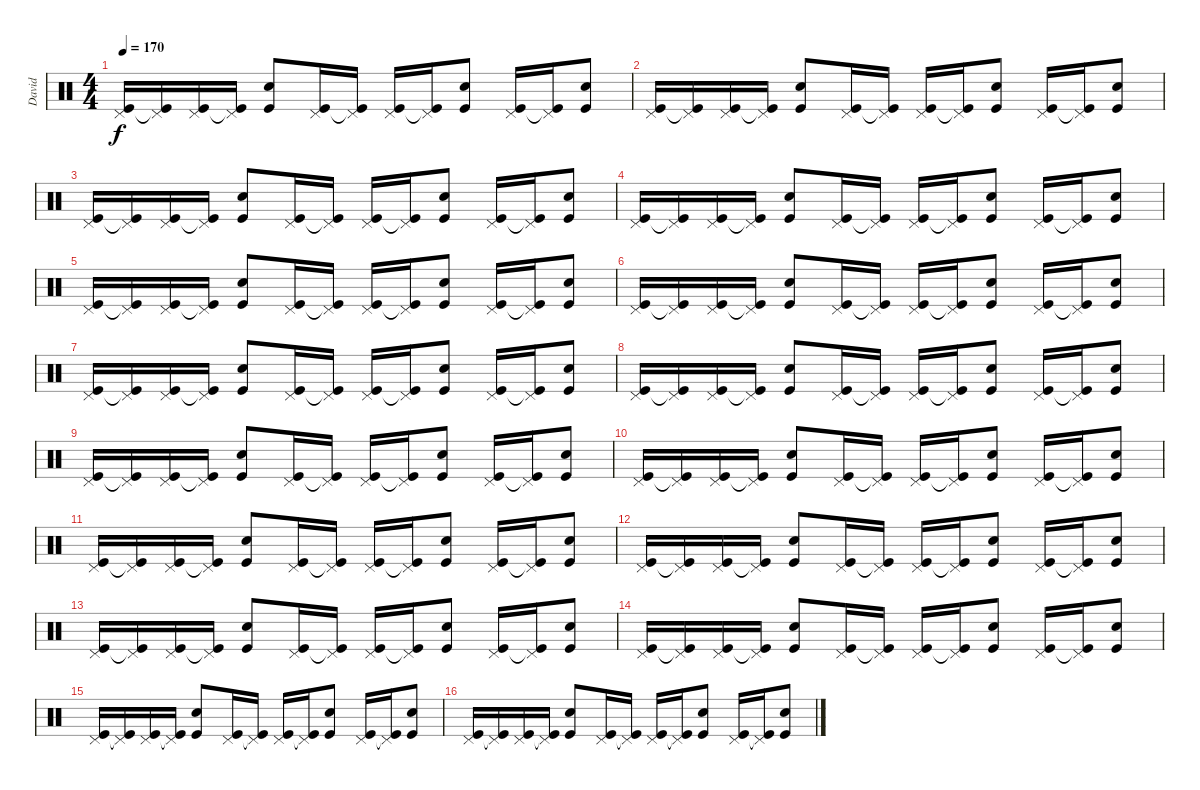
\track ("David" "David") {instrument percussion}
\staff {score}
\articulation defaults
\ts (4 4)
\tempo 170
\clef neutral
\ks c
("Pedal Hi-Hat (hit)" "Kick (hit)").16{dy f} ("Pedal Hi-Hat (hit)" "Kick (hit)"{t}).16 ("Pedal Hi-Hat (hit)" "Kick (hit)").16 ("Pedal Hi-Hat (hit)" "Kick (hit)"{t}).16 ("Snare (hit) 2" "Kick (hit)").8 ("Pedal Hi-Hat (hit)" "Kick (hit)").16 ("Pedal Hi-Hat (hit)" "Kick (hit)"{t}).16 ("Pedal Hi-Hat (hit)" "Kick (hit)").16 ("Pedal Hi-Hat (hit)" "Kick (hit)"{t}).16 ("Snare (hit) 2" "Kick (hit)").8 ("Pedal Hi-Hat (hit)" "Kick (hit)").16 ("Pedal Hi-Hat (hit)" "Kick (hit)"{t}).16 ("Snare (hit) 2" "Kick (hit)").8 |
("Pedal Hi-Hat (hit)" "Kick (hit)").16 ("Pedal Hi-Hat (hit)" "Kick (hit)"{t}).16 ("Pedal Hi-Hat (hit)" "Kick (hit)").16 ("Pedal Hi-Hat (hit)" "Kick (hit)"{t}).16 ("Snare (hit) 2" "Kick (hit)").8 ("Pedal Hi-Hat (hit)" "Kick (hit)").16 ("Pedal Hi-Hat (hit)" "Kick (hit)"{t}).16 ("Pedal Hi-Hat (hit)" "Kick (hit)").16 ("Pedal Hi-Hat (hit)" "Kick (hit)"{t}).16 ("Snare (hit) 2" "Kick (hit)").8 ("Pedal Hi-Hat (hit)" "Kick (hit)").16 ("Pedal Hi-Hat (hit)" "Kick (hit)"{t}).16 ("Snare (hit) 2" "Kick (hit)").8 |
("Pedal Hi-Hat (hit)" "Kick (hit)").16 ("Pedal Hi-Hat (hit)" "Kick (hit)"{t}).16 ("Pedal Hi-Hat (hit)" "Kick (hit)").16 ("Pedal Hi-Hat (hit)" "Kick (hit)"{t}).16 ("Snare (hit) 2" "Kick (hit)").8 ("Pedal Hi-Hat (hit)" "Kick (hit)").16 ("Pedal Hi-Hat (hit)" "Kick (hit)"{t}).16 ("Pedal Hi-Hat (hit)" "Kick (hit)").16 ("Pedal Hi-Hat (hit)" "Kick (hit)"{t}).16 ("Snare (hit) 2" "Kick (hit)").8 ("Pedal Hi-Hat (hit)" "Kick (hit)").16 ("Pedal Hi-Hat (hit)" "Kick (hit)"{t}).16 ("Snare (hit) 2" "Kick (hit)").8 |
("Pedal Hi-Hat (hit)" "Kick (hit)").16 ("Pedal Hi-Hat (hit)" "Kick (hit)"{t}).16 ("Pedal Hi-Hat (hit)" "Kick (hit)").16 ("Pedal Hi-Hat (hit)" "Kick (hit)"{t}).16 ("Snare (hit) 2" "Kick (hit)").8 ("Pedal Hi-Hat (hit)" "Kick (hit)").16 ("Pedal Hi-Hat (hit)" "Kick (hit)"{t}).16 ("Pedal Hi-Hat (hit)" "Kick (hit)").16 ("Pedal Hi-Hat (hit)" "Kick (hit)"{t}).16 ("Snare (hit) 2" "Kick (hit)").8 ("Pedal Hi-Hat (hit)" "Kick (hit)").16 ("Pedal Hi-Hat (hit)" "Kick (hit)"{t}).16 ("Snare (hit) 2" "Kick (hit)").8 |
("Pedal Hi-Hat (hit)" "Kick (hit)").16 ("Pedal Hi-Hat (hit)" "Kick (hit)"{t}).16 ("Pedal Hi-Hat (hit)" "Kick (hit)").16 ("Pedal Hi-Hat (hit)" "Kick (hit)"{t}).16 ("Snare (hit) 2" "Kick (hit)").8 ("Pedal Hi-Hat (hit)" "Kick (hit)").16 ("Pedal Hi-Hat (hit)" "Kick (hit)"{t}).16 ("Pedal Hi-Hat (hit)" "Kick (hit)").16 ("Pedal Hi-Hat (hit)" "Kick (hit)"{t}).16 ("Snare (hit) 2" "Kick (hit)").8 ("Pedal Hi-Hat (hit)" "Kick (hit)").16 ("Pedal Hi-Hat (hit)" "Kick (hit)"{t}).16 ("Snare (hit) 2" "Kick (hit)").8 |
("Pedal Hi-Hat (hit)" "Kick (hit)").16 ("Pedal Hi-Hat (hit)" "Kick (hit)"{t}).16 ("Pedal Hi-Hat (hit)" "Kick (hit)").16 ("Pedal Hi-Hat (hit)" "Kick (hit)"{t}).16 ("Snare (hit) 2" "Kick (hit)").8 ("Pedal Hi-Hat (hit)" "Kick (hit)").16 ("Pedal Hi-Hat (hit)" "Kick (hit)"{t}).16 ("Pedal Hi-Hat (hit)" "Kick (hit)").16 ("Pedal Hi-Hat (hit)" "Kick (hit)"{t}).16 ("Snare (hit) 2" "Kick (hit)").8 ("Pedal Hi-Hat (hit)" "Kick (hit)").16 ("Pedal Hi-Hat (hit)" "Kick (hit)"{t}).16 ("Snare (hit) 2" "Kick (hit)").8 |
("Pedal Hi-Hat (hit)" "Kick (hit)").16 ("Pedal Hi-Hat (hit)" "Kick (hit)"{t}).16 ("Pedal Hi-Hat (hit)" "Kick (hit)").16 ("Pedal Hi-Hat (hit)" "Kick (hit)"{t}).16 ("Snare (hit) 2" "Kick (hit)").8 ("Pedal Hi-Hat (hit)" "Kick (hit)").16 ("Pedal Hi-Hat (hit)" "Kick (hit)"{t}).16 ("Pedal Hi-Hat (hit)" "Kick (hit)").16 ("Pedal Hi-Hat (hit)" "Kick (hit)"{t}).16 ("Snare (hit) 2" "Kick (hit)").8 ("Pedal Hi-Hat (hit)" "Kick (hit)").16 ("Pedal Hi-Hat (hit)" "Kick (hit)"{t}).16 ("Snare (hit) 2" "Kick (hit)").8 |
("Pedal Hi-Hat (hit)" "Kick (hit)").16 ("Pedal Hi-Hat (hit)" "Kick (hit)"{t}).16 ("Pedal Hi-Hat (hit)" "Kick (hit)").16 ("Pedal Hi-Hat (hit)" "Kick (hit)"{t}).16 ("Snare (hit) 2" "Kick (hit)").8 ("Pedal Hi-Hat (hit)" "Kick (hit)").16 ("Pedal Hi-Hat (hit)" "Kick (hit)"{t}).16 ("Pedal Hi-Hat (hit)" "Kick (hit)").16 ("Pedal Hi-Hat (hit)" "Kick (hit)"{t}).16 ("Snare (hit) 2" "Kick (hit)").8 ("Pedal Hi-Hat (hit)" "Kick (hit)").16 ("Pedal Hi-Hat (hit)" "Kick (hit)"{t}).16 ("Snare (hit) 2" "Kick (hit)").8 |
("Pedal Hi-Hat (hit)" "Kick (hit)").16 ("Pedal Hi-Hat (hit)" "Kick (hit)"{t}).16 ("Pedal Hi-Hat (hit)" "Kick (hit)").16 ("Pedal Hi-Hat (hit)" "Kick (hit)"{t}).16 ("Snare (hit) 2" "Kick (hit)").8 ("Pedal Hi-Hat (hit)" "Kick (hit)").16 ("Pedal Hi-Hat (hit)" "Kick (hit)"{t}).16 ("Pedal Hi-Hat (hit)" "Kick (hit)").16 ("Pedal Hi-Hat (hit)" "Kick (hit)"{t}).16 ("Snare (hit) 2" "Kick (hit)").8 ("Pedal Hi-Hat (hit)" "Kick (hit)").16 ("Pedal Hi-Hat (hit)" "Kick (hit)"{t}).16 ("Snare (hit) 2" "Kick (hit)").8 |
("Pedal Hi-Hat (hit)" "Kick (hit)").16 ("Pedal Hi-Hat (hit)" "Kick (hit)"{t}).16 ("Pedal Hi-Hat (hit)" "Kick (hit)").16 ("Pedal Hi-Hat (hit)" "Kick (hit)"{t}).16 ("Snare (hit) 2" "Kick (hit)").8 ("Pedal Hi-Hat (hit)" "Kick (hit)").16 ("Pedal Hi-Hat (hit)" "Kick (hit)"{t}).16 ("Pedal Hi-Hat (hit)" "Kick (hit)").16 ("Pedal Hi-Hat (hit)" "Kick (hit)"{t}).16 ("Snare (hit) 2" "Kick (hit)").8 ("Pedal Hi-Hat (hit)" "Kick (hit)").16 ("Pedal Hi-Hat (hit)" "Kick (hit)"{t}).16 ("Snare (hit) 2" "Kick (hit)").8 |
("Pedal Hi-Hat (hit)" "Kick (hit)").16 ("Pedal Hi-Hat (hit)" "Kick (hit)"{t}).16 ("Pedal Hi-Hat (hit)" "Kick (hit)").16 ("Pedal Hi-Hat (hit)" "Kick (hit)"{t}).16 ("Snare (hit) 2" "Kick (hit)").8 ("Pedal Hi-Hat (hit)" "Kick (hit)").16 ("Pedal Hi-Hat (hit)" "Kick (hit)"{t}).16 ("Pedal Hi-Hat (hit)" "Kick (hit)").16 ("Pedal Hi-Hat (hit)" "Kick (hit)"{t}).16 ("Snare (hit) 2" "Kick (hit)").8 ("Pedal Hi-Hat (hit)" "Kick (hit)").16 ("Pedal Hi-Hat (hit)" "Kick (hit)"{t}).16 ("Snare (hit) 2" "Kick (hit)").8 |
("Pedal Hi-Hat (hit)" "Kick (hit)").16 ("Pedal Hi-Hat (hit)" "Kick (hit)"{t}).16 ("Pedal Hi-Hat (hit)" "Kick (hit)").16 ("Pedal Hi-Hat (hit)" "Kick (hit)"{t}).16 ("Snare (hit) 2" "Kick (hit)").8 ("Pedal Hi-Hat (hit)" "Kick (hit)").16 ("Pedal Hi-Hat (hit)" "Kick (hit)"{t}).16 ("Pedal Hi-Hat (hit)" "Kick (hit)").16 ("Pedal Hi-Hat (hit)" "Kick (hit)"{t}).16 ("Snare (hit) 2" "Kick (hit)").8 ("Pedal Hi-Hat (hit)" "Kick (hit)").16 ("Pedal Hi-Hat (hit)" "Kick (hit)"{t}).16 ("Snare (hit) 2" "Kick (hit)").8 |
("Pedal Hi-Hat (hit)" "Kick (hit)").16 ("Pedal Hi-Hat (hit)" "Kick (hit)"{t}).16 ("Pedal Hi-Hat (hit)" "Kick (hit)").16 ("Pedal Hi-Hat (hit)" "Kick (hit)"{t}).16 ("Snare (hit) 2" "Kick (hit)").8 ("Pedal Hi-Hat (hit)" "Kick (hit)").16 ("Pedal Hi-Hat (hit)" "Kick (hit)"{t}).16 ("Pedal Hi-Hat (hit)" "Kick (hit)").16 ("Pedal Hi-Hat (hit)" "Kick (hit)"{t}).16 ("Snare (hit) 2" "Kick (hit)").8 ("Pedal Hi-Hat (hit)" "Kick (hit)").16 ("Pedal Hi-Hat (hit)" "Kick (hit)"{t}).16 ("Snare (hit) 2" "Kick (hit)").8 |
("Pedal Hi-Hat (hit)" "Kick (hit)").16 ("Pedal Hi-Hat (hit)" "Kick (hit)"{t}).16 ("Pedal Hi-Hat (hit)" "Kick (hit)").16 ("Pedal Hi-Hat (hit)" "Kick (hit)"{t}).16 ("Snare (hit) 2" "Kick (hit)").8 ("Pedal Hi-Hat (hit)" "Kick (hit)").16 ("Pedal Hi-Hat (hit)" "Kick (hit)"{t}).16 ("Pedal Hi-Hat (hit)" "Kick (hit)").16 ("Pedal Hi-Hat (hit)" "Kick (hit)"{t}).16 ("Snare (hit) 2" "Kick (hit)").8 ("Pedal Hi-Hat (hit)" "Kick (hit)").16 ("Pedal Hi-Hat (hit)" "Kick (hit)"{t}).16 ("Snare (hit) 2" "Kick (hit)").8 |
("Pedal Hi-Hat (hit)" "Kick (hit)").16 ("Pedal Hi-Hat (hit)" "Kick (hit)"{t}).16 ("Pedal Hi-Hat (hit)" "Kick (hit)").16 ("Pedal Hi-Hat (hit)" "Kick (hit)"{t}).16 ("Snare (hit) 2" "Kick (hit)").8 ("Pedal Hi-Hat (hit)" "Kick (hit)").16 ("Pedal Hi-Hat (hit)" "Kick (hit)"{t}).16 ("Pedal Hi-Hat (hit)" "Kick (hit)").16 ("Pedal Hi-Hat (hit)" "Kick (hit)"{t}).16 ("Snare (hit) 2" "Kick (hit)").8 ("Pedal Hi-Hat (hit)" "Kick (hit)").16 ("Pedal Hi-Hat (hit)" "Kick (hit)"{t}).16 ("Snare (hit) 2" "Kick (hit)").8 |
("Pedal Hi-Hat (hit)" "Kick (hit)").16 ("Pedal Hi-Hat (hit)" "Kick (hit)"{t}).16 ("Pedal Hi-Hat (hit)" "Kick (hit)").16 ("Pedal Hi-Hat (hit)" "Kick (hit)"{t}).16 ("Snare (hit) 2" "Kick (hit)").8 ("Pedal Hi-Hat (hit)" "Kick (hit)").16 ("Pedal Hi-Hat (hit)" "Kick (hit)"{t}).16 ("Pedal Hi-Hat (hit)" "Kick (hit)").16 ("Pedal Hi-Hat (hit)" "Kick (hit)"{t}).16 ("Snare (hit) 2" "Kick (hit)").8 ("Pedal Hi-Hat (hit)" "Kick (hit)").16 ("Pedal Hi-Hat (hit)" "Kick (hit)"{t}).16 ("Snare (hit) 2" "Kick (hit)").8
